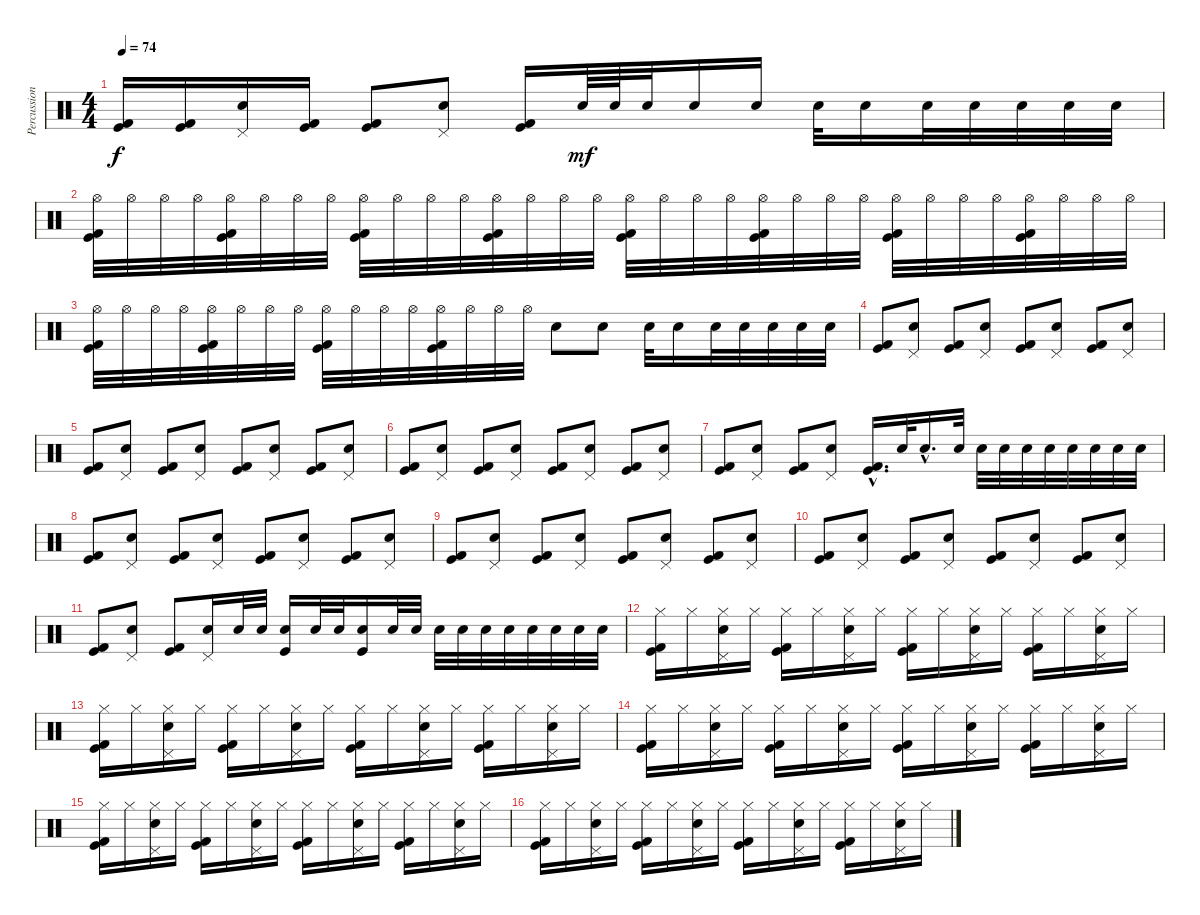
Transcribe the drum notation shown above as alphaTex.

\track ("Percussion" "Percussion") {instrument percussion}
\staff {score}
\articulation defaults
\ts (4 4)
\tempo 74
\clef neutral
\ks c
("Kick (hit) 2" "Kick (hit)").16{dy f} ("Kick (hit) 2" "Kick (hit)").16 ("Electric Snare (hit)" "Pedal Hi-Hat (hit)").16 ("Kick (hit) 2" "Kick (hit)").16 ("Kick (hit) 2" "Kick (hit)").8 ("Electric Snare (hit)" "Pedal Hi-Hat (hit)").8 ("Kick (hit) 2" "Kick (hit)").16 "Electric Snare (hit)".64{dy mf} "Electric Snare (hit)".64 "Electric Snare (hit)".32 "Electric Snare (hit)".16 "Electric Snare (hit)".16 "Electric Snare (hit)".32 "Electric Snare (hit)".16 "Electric Snare (hit)".32 "Electric Snare (hit)".32 "Electric Snare (hit)".32 "Electric Snare (hit)".32 "Electric Snare (hit)".32 |
("Kick (hit) 2" "Kick (hit)" "Hi-Hat (open)").32 "Hi-Hat (open)".32 "Hi-Hat (open)".32 "Hi-Hat (open)".32 ("Kick (hit) 2" "Kick (hit)" "Hi-Hat (open)").32 "Hi-Hat (open)".32 "Hi-Hat (open)".32 "Hi-Hat (open)".32 ("Kick (hit) 2" "Kick (hit)" "Hi-Hat (open)").32 "Hi-Hat (open)".32 "Hi-Hat (open)".32 "Hi-Hat (open)".32 ("Kick (hit) 2" "Kick (hit)" "Hi-Hat (open)").32 "Hi-Hat (open)".32 "Hi-Hat (open)".32 "Hi-Hat (open)".32 ("Kick (hit) 2" "Kick (hit)" "Hi-Hat (open)").32 "Hi-Hat (open)".32 "Hi-Hat (open)".32 "Hi-Hat (open)".32 ("Kick (hit) 2" "Kick (hit)" "Hi-Hat (open)").32 "Hi-Hat (open)".32 "Hi-Hat (open)".32 "Hi-Hat (open)".32 ("Kick (hit) 2" "Kick (hit)" "Hi-Hat (open)").32 "Hi-Hat (open)".32 "Hi-Hat (open)".32 "Hi-Hat (open)".32 ("Kick (hit) 2" "Kick (hit)" "Hi-Hat (open)").32 "Hi-Hat (open)".32 "Hi-Hat (open)".32 "Hi-Hat (open)".32 |
("Kick (hit) 2" "Kick (hit)" "Hi-Hat (open)").32 "Hi-Hat (open)".32 "Hi-Hat (open)".32 "Hi-Hat (open)".32 ("Kick (hit) 2" "Kick (hit)" "Hi-Hat (open)").32 "Hi-Hat (open)".32 "Hi-Hat (open)".32 "Hi-Hat (open)".32 ("Kick (hit) 2" "Kick (hit)" "Hi-Hat (open)").32 "Hi-Hat (open)".32 "Hi-Hat (open)".32 "Hi-Hat (open)".32 ("Kick (hit) 2" "Kick (hit)" "Hi-Hat (open)").32 "Hi-Hat (open)".32 "Hi-Hat (open)".32 "Hi-Hat (open)".32 "Electric Snare (hit)".8 "Electric Snare (hit)".8 "Electric Snare (hit)".32 "Electric Snare (hit)".16 "Electric Snare (hit)".32 "Electric Snare (hit)".32 "Electric Snare (hit)".32 "Electric Snare (hit)".32 "Electric Snare (hit)".32 |
("Kick (hit) 2" "Kick (hit)").8 ("Electric Snare (hit)" "Pedal Hi-Hat (hit)").8 ("Kick (hit) 2" "Kick (hit)").8 ("Electric Snare (hit)" "Pedal Hi-Hat (hit)").8 ("Kick (hit) 2" "Kick (hit)").8 ("Electric Snare (hit)" "Pedal Hi-Hat (hit)").8 ("Kick (hit) 2" "Kick (hit)").8 ("Electric Snare (hit)" "Pedal Hi-Hat (hit)").8 |
("Kick (hit) 2" "Kick (hit)").8 ("Electric Snare (hit)" "Pedal Hi-Hat (hit)").8 ("Kick (hit) 2" "Kick (hit)").8 ("Electric Snare (hit)" "Pedal Hi-Hat (hit)").8 ("Kick (hit) 2" "Kick (hit)").8 ("Electric Snare (hit)" "Pedal Hi-Hat (hit)").8 ("Kick (hit) 2" "Kick (hit)").8 ("Electric Snare (hit)" "Pedal Hi-Hat (hit)").8 |
("Kick (hit) 2" "Kick (hit)").8 ("Electric Snare (hit)" "Pedal Hi-Hat (hit)").8 ("Kick (hit) 2" "Kick (hit)").8 ("Electric Snare (hit)" "Pedal Hi-Hat (hit)").8 ("Kick (hit) 2" "Kick (hit)").8 ("Electric Snare (hit)" "Pedal Hi-Hat (hit)").8 ("Kick (hit) 2" "Kick (hit)").8 ("Electric Snare (hit)" "Pedal Hi-Hat (hit)").8 |
("Kick (hit) 2" "Kick (hit)").8 ("Electric Snare (hit)" "Pedal Hi-Hat (hit)").8 ("Kick (hit) 2" "Kick (hit)").8 ("Electric Snare (hit)" "Pedal Hi-Hat (hit)").8 ("Kick (hit) 2"{hac} "Kick (hit)"{hac}).16{d} "Electric Snare (hit)".32 "Electric Snare (hit)"{hac}.16{d} "Electric Snare (hit)".32 "Electric Snare (hit)".32 "Electric Snare (hit)".32 "Electric Snare (hit)".32 "Electric Snare (hit)".32 "Electric Snare (hit)".32 "Electric Snare (hit)".32 "Electric Snare (hit)".32 "Electric Snare (hit)".32 |
("Kick (hit) 2" "Kick (hit)").8 ("Electric Snare (hit)" "Pedal Hi-Hat (hit)").8 ("Kick (hit) 2" "Kick (hit)").8 ("Electric Snare (hit)" "Pedal Hi-Hat (hit)").8 ("Kick (hit) 2" "Kick (hit)").8 ("Electric Snare (hit)" "Pedal Hi-Hat (hit)").8 ("Kick (hit) 2" "Kick (hit)").8 ("Electric Snare (hit)" "Pedal Hi-Hat (hit)").8 |
("Kick (hit) 2" "Kick (hit)").8 ("Electric Snare (hit)" "Pedal Hi-Hat (hit)").8 ("Kick (hit) 2" "Kick (hit)").8 ("Electric Snare (hit)" "Pedal Hi-Hat (hit)").8 ("Kick (hit) 2" "Kick (hit)").8 ("Electric Snare (hit)" "Pedal Hi-Hat (hit)").8 ("Kick (hit) 2" "Kick (hit)").8 ("Electric Snare (hit)" "Pedal Hi-Hat (hit)").8 |
("Kick (hit) 2" "Kick (hit)").8 ("Electric Snare (hit)" "Pedal Hi-Hat (hit)").8 ("Kick (hit) 2" "Kick (hit)").8 ("Electric Snare (hit)" "Pedal Hi-Hat (hit)").8 ("Kick (hit) 2" "Kick (hit)").8 ("Electric Snare (hit)" "Pedal Hi-Hat (hit)").8 ("Kick (hit) 2" "Kick (hit)").8 ("Electric Snare (hit)" "Pedal Hi-Hat (hit)").8 |
("Kick (hit) 2" "Kick (hit)").8 ("Electric Snare (hit)" "Pedal Hi-Hat (hit)").8 ("Kick (hit) 2" "Kick (hit)").8 ("Electric Snare (hit)" "Pedal Hi-Hat (hit)").16 "Electric Snare (hit)".32 "Electric Snare (hit)".32 ("Electric Snare (hit)" "Kick (hit)").16 "Electric Snare (hit)".32 "Electric Snare (hit)".32 ("Kick (hit)" "Electric Snare (hit)").16 "Electric Snare (hit)".32 "Electric Snare (hit)".32 "Electric Snare (hit)".32 "Electric Snare (hit)".32 "Electric Snare (hit)".32 "Electric Snare (hit)".32 "Electric Snare (hit)".32 "Electric Snare (hit)".32 "Electric Snare (hit)".32 "Electric Snare (hit)".32 |
("Kick (hit) 2" "Kick (hit)" "Hi-Hat (closed)").16 "Hi-Hat (closed)".16 ("Electric Snare (hit)" "Pedal Hi-Hat (hit)" "Hi-Hat (closed)").16 "Hi-Hat (closed)".16 ("Kick (hit) 2" "Kick (hit)" "Hi-Hat (closed)").16 "Hi-Hat (closed)".16 ("Electric Snare (hit)" "Pedal Hi-Hat (hit)" "Hi-Hat (closed)").16 "Hi-Hat (closed)".16 ("Kick (hit) 2" "Kick (hit)" "Hi-Hat (closed)").16 "Hi-Hat (closed)".16 ("Electric Snare (hit)" "Pedal Hi-Hat (hit)" "Hi-Hat (closed)").16 "Hi-Hat (closed)".16 ("Kick (hit) 2" "Kick (hit)" "Hi-Hat (closed)").16 "Hi-Hat (closed)".16 ("Electric Snare (hit)" "Pedal Hi-Hat (hit)" "Hi-Hat (closed)").16 "Hi-Hat (closed)".16 |
("Kick (hit) 2" "Kick (hit)" "Hi-Hat (closed)").16 "Hi-Hat (closed)".16 ("Electric Snare (hit)" "Pedal Hi-Hat (hit)" "Hi-Hat (closed)").16 "Hi-Hat (closed)".16 ("Kick (hit) 2" "Kick (hit)" "Hi-Hat (closed)").16 "Hi-Hat (closed)".16 ("Electric Snare (hit)" "Pedal Hi-Hat (hit)" "Hi-Hat (closed)").16 "Hi-Hat (closed)".16 ("Kick (hit) 2" "Kick (hit)" "Hi-Hat (closed)").16 "Hi-Hat (closed)".16 ("Electric Snare (hit)" "Pedal Hi-Hat (hit)" "Hi-Hat (closed)").16 "Hi-Hat (closed)".16 ("Kick (hit) 2" "Kick (hit)" "Hi-Hat (closed)").16 "Hi-Hat (closed)".16 ("Electric Snare (hit)" "Pedal Hi-Hat (hit)" "Hi-Hat (closed)").16 "Hi-Hat (closed)".16 |
("Kick (hit) 2" "Kick (hit)" "Hi-Hat (closed)").16 "Hi-Hat (closed)".16 ("Electric Snare (hit)" "Pedal Hi-Hat (hit)" "Hi-Hat (closed)").16 "Hi-Hat (closed)".16 ("Kick (hit) 2" "Kick (hit)" "Hi-Hat (closed)").16 "Hi-Hat (closed)".16 ("Electric Snare (hit)" "Pedal Hi-Hat (hit)" "Hi-Hat (closed)").16 "Hi-Hat (closed)".16 ("Kick (hit) 2" "Kick (hit)" "Hi-Hat (closed)").16 "Hi-Hat (closed)".16 ("Electric Snare (hit)" "Pedal Hi-Hat (hit)" "Hi-Hat (closed)").16 "Hi-Hat (closed)".16 ("Kick (hit) 2" "Kick (hit)" "Hi-Hat (closed)").16 "Hi-Hat (closed)".16 ("Electric Snare (hit)" "Pedal Hi-Hat (hit)" "Hi-Hat (closed)").16 "Hi-Hat (closed)".16 |
("Kick (hit) 2" "Kick (hit)" "Hi-Hat (closed)").16 "Hi-Hat (closed)".16 ("Electric Snare (hit)" "Pedal Hi-Hat (hit)" "Hi-Hat (closed)").16 "Hi-Hat (closed)".16 ("Kick (hit) 2" "Kick (hit)" "Hi-Hat (closed)").16 "Hi-Hat (closed)".16 ("Electric Snare (hit)" "Pedal Hi-Hat (hit)" "Hi-Hat (closed)").16 "Hi-Hat (closed)".16 ("Kick (hit) 2" "Kick (hit)" "Hi-Hat (closed)").16 "Hi-Hat (closed)".16 ("Electric Snare (hit)" "Pedal Hi-Hat (hit)" "Hi-Hat (closed)").16 "Hi-Hat (closed)".16 ("Kick (hit) 2" "Kick (hit)" "Hi-Hat (closed)").16 "Hi-Hat (closed)".16 ("Electric Snare (hit)" "Pedal Hi-Hat (hit)" "Hi-Hat (closed)").16 "Hi-Hat (closed)".16 |
("Kick (hit) 2" "Kick (hit)" "Hi-Hat (closed)").16 "Hi-Hat (closed)".16 ("Electric Snare (hit)" "Pedal Hi-Hat (hit)" "Hi-Hat (closed)").16 "Hi-Hat (closed)".16 ("Kick (hit) 2" "Kick (hit)" "Hi-Hat (closed)").16 "Hi-Hat (closed)".16 ("Electric Snare (hit)" "Pedal Hi-Hat (hit)" "Hi-Hat (closed)").16 "Hi-Hat (closed)".16 ("Kick (hit) 2" "Kick (hit)" "Hi-Hat (closed)").16 "Hi-Hat (closed)".16 ("Electric Snare (hit)" "Pedal Hi-Hat (hit)" "Hi-Hat (closed)").16 "Hi-Hat (closed)".16 ("Kick (hit) 2" "Kick (hit)" "Hi-Hat (closed)").16 "Hi-Hat (closed)".16 ("Electric Snare (hit)" "Pedal Hi-Hat (hit)" "Hi-Hat (closed)").16 "Hi-Hat (closed)".16
